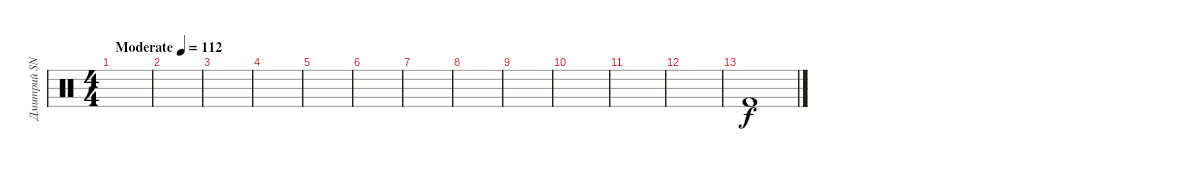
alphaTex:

\track ("Дмитрий SNAKE Хакимов" "Дмитрий SN") {instrument percussion}
\staff {score}
\articulation defaults
\ts (4 4)
\tempo (112 "Moderate")
\clef neutral
\ks c
|
|
|
|
|
|
|
|
|
|
|
|
"Kick (hit) 2".1
